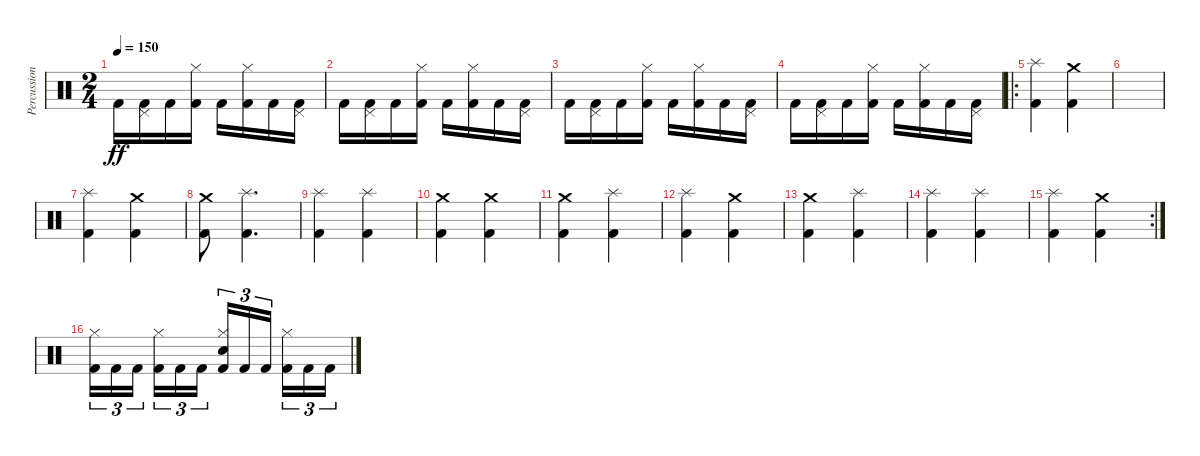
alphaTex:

\track ("Percussion" "Percussion") {instrument percussion}
\staff {score}
\articulation defaults
\ts (2 4)
\tempo 150
\clef neutral
\ks c "Kick (hit) 2".16{dy ff}
("Kick (hit) 2" "Pedal Hi-Hat (hit)").16 "Kick (hit) 2".16 ("Kick (hit) 2" "Hi-Hat (closed)").16 "Kick (hit) 2".16 ("Kick (hit) 2" "Hi-Hat (closed)").16 "Kick (hit) 2".16 ("Kick (hit) 2" "Pedal Hi-Hat (hit)").16 |
"Kick (hit) 2".16 ("Kick (hit) 2" "Pedal Hi-Hat (hit)").16 "Kick (hit) 2".16 ("Kick (hit) 2" "Hi-Hat (closed)").16 "Kick (hit) 2".16 ("Kick (hit) 2" "Hi-Hat (closed)").16 "Kick (hit) 2".16 ("Kick (hit) 2" "Pedal Hi-Hat (hit)").16 |
"Kick (hit) 2".16 ("Kick (hit) 2" "Pedal Hi-Hat (hit)").16 "Kick (hit) 2".16 ("Kick (hit) 2" "Hi-Hat (closed)").16 "Kick (hit) 2".16 ("Kick (hit) 2" "Hi-Hat (closed)").16 "Kick (hit) 2".16 ("Kick (hit) 2" "Pedal Hi-Hat (hit)").16 |
"Kick (hit) 2".16 ("Kick (hit) 2" "Pedal Hi-Hat (hit)").16 "Kick (hit) 2".16 ("Kick (hit) 2" "Hi-Hat (closed)").16 "Kick (hit) 2".16 ("Kick (hit) 2" "Hi-Hat (closed)").16 "Kick (hit) 2".16 ("Kick (hit) 2" "Pedal Hi-Hat (hit)").16 |
\ro
("Kick (hit) 2" "Splash (hit)").4 ("Kick (hit) 2" "Crash medium (hit)").4 |
|
("Kick (hit) 2" "Splash (hit)").4 ("Kick (hit) 2" "Crash medium (hit)").4 |
("Kick (hit) 2" "Crash medium (hit)").8 ("Kick (hit) 2" "Splash (hit)").4{d} |
("Kick (hit) 2" "Splash (hit)").4 ("Kick (hit) 2" "Splash (hit)").4 |
("Kick (hit) 2" "Crash medium (hit)").4 ("Kick (hit) 2" "Crash medium (hit)").4 |
("Kick (hit) 2" "Crash medium (hit)").4 ("Kick (hit) 2" "Splash (hit)").4 |
("Kick (hit) 2" "Splash (hit)").4 ("Kick (hit) 2" "Crash medium (hit)").4 |
("Kick (hit) 2" "Crash medium (hit)").4 ("Kick (hit) 2" "Splash (hit)").4 |
("Kick (hit) 2" "Splash (hit)").4 ("Kick (hit) 2" "Splash (hit)").4 |
\rc 2
("Kick (hit) 2" "Splash (hit)").4 ("Kick (hit) 2" "Crash medium (hit)").4 |
("Kick (hit) 2" "Hi-Hat (closed)").16{tu (3 2)} "Kick (hit) 2".16{tu (3 2)} "Kick (hit) 2".16{tu (3 2) beam splitsecondary} ("Kick (hit) 2" "Hi-Hat (closed)").16{tu (3 2)} "Kick (hit) 2".16{tu (3 2)} "Kick (hit) 2".16{tu (3 2)} ("Kick (hit) 2" "Snare (hit) 2" "Hi-Hat (closed)").16{tu (3 2)} "Kick (hit) 2".16{tu (3 2)} "Kick (hit) 2".16{tu (3 2) beam splitsecondary} ("Kick (hit) 2" "Hi-Hat (closed)").16{tu (3 2)} "Kick (hit) 2".16{tu (3 2)} "Kick (hit) 2".16{tu (3 2)}
